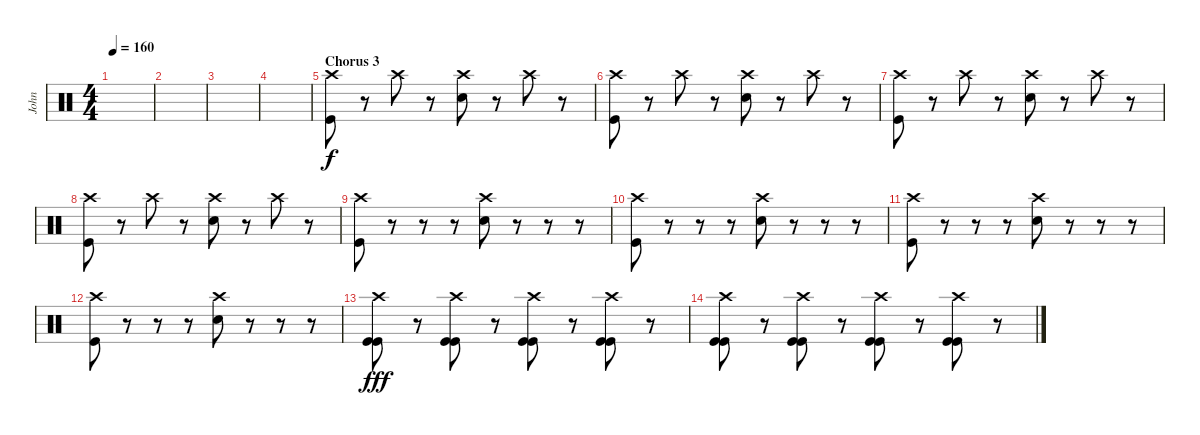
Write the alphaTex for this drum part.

\track ("John" "John") {instrument percussion}
\staff {score}
\articulation defaults
\ts (4 4)
\tempo 160
\clef neutral
\ks c
|
|
|
|
\section ("" "Chorus 3")
("Crash high (hit)" "Kick (hit)").8 r.8 "Crash high (hit)".8 r.8 ("Crash high (hit)" "Electric Snare (hit)").8 r.8 "Crash high (hit)".8 r.8 |
("Crash high (hit)" "Kick (hit)").8 r.8 "Crash high (hit)".8 r.8 ("Crash high (hit)" "Electric Snare (hit)").8 r.8 "Crash high (hit)".8 r.8 |
("Crash high (hit)" "Kick (hit)").8 r.8 "Crash high (hit)".8 r.8 ("Crash high (hit)" "Electric Snare (hit)").8 r.8 "Crash high (hit)".8 r.8 |
("Crash high (hit)" "Kick (hit)").8 r.8 "Crash high (hit)".8 r.8 ("Crash high (hit)" "Electric Snare (hit)").8 r.8 "Crash high (hit)".8 r.8 |
("Crash high (hit)" "Kick (hit)").8 r.8 r.8 r.8 ("Crash high (hit)" "Electric Snare (hit)").8 r.8 r.8 r.8 |
("Crash high (hit)" "Kick (hit)").8 r.8 r.8 r.8 ("Crash high (hit)" "Electric Snare (hit)").8 r.8 r.8 r.8 |
("Crash high (hit)" "Kick (hit)").8 r.8 r.8 r.8 ("Crash high (hit)" "Electric Snare (hit)").8 r.8 r.8 r.8 |
("Crash high (hit)" "Kick (hit)").8 r.8 r.8 r.8 ("Crash high (hit)" "Electric Snare (hit)").8 r.8 r.8 r.8 |
("Crash high (hit)" "Kick (hit)" "Kick (hit)").8{dy fff} r.8 ("Crash high (hit)" "Kick (hit)" "Kick (hit)").8 r.8 ("Crash high (hit)" "Kick (hit)" "Kick (hit)").8 r.8 ("Crash high (hit)" "Kick (hit)" "Kick (hit)").8 r.8 |
("Crash high (hit)" "Kick (hit)" "Kick (hit)").8 r.8 ("Crash high (hit)" "Kick (hit)" "Kick (hit)").8 r.8 ("Crash high (hit)" "Kick (hit)" "Kick (hit)").8 r.8 ("Crash high (hit)" "Kick (hit)" "Kick (hit)").8 r.8
